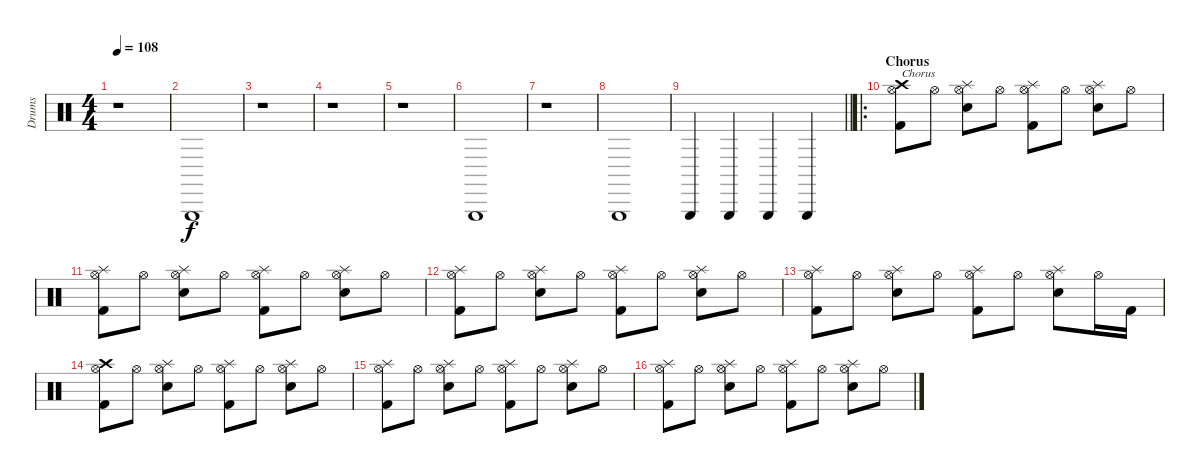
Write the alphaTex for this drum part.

\track ("Drums" "Drums") {instrument percussion}
\staff {score}
\articulation defaults
\ts (4 4)
\tempo 108
\clef neutral
\ks c
r.1{dy f} |
"Triangle (hit)".1 |
r.1 |
r.1 |
r.1 |
"Triangle (hit)".1 |
r.1 |
"Triangle (hit)".1 |
\barLineRight lightlight "Triangle (hit)".4 "Triangle (hit)".4 "Triangle (hit)".4 "Triangle (hit)".4
|
\ro
\section ("" "Chorus")
("Crash high (hit)" "Hi-Hat (open)" "Kick (hit) 2").8{txt "Chorus"} "Hi-Hat (open)".8 ("Splash (hit)" "Hi-Hat (open)" "Snare (hit) 2").8 "Hi-Hat (open)".8 ("Splash (hit)" "Hi-Hat (open)" "Kick (hit) 2").8 "Hi-Hat (open)".8 ("Splash (hit)" "Hi-Hat (open)" "Snare (hit) 2").8 "Hi-Hat (open)".8 |
("Splash (hit)" "Hi-Hat (open)" "Kick (hit) 2").8 "Hi-Hat (open)".8 ("Splash (hit)" "Hi-Hat (open)" "Snare (hit) 2").8 "Hi-Hat (open)".8 ("Splash (hit)" "Hi-Hat (open)" "Kick (hit) 2").8 "Hi-Hat (open)".8 ("Splash (hit)" "Hi-Hat (open)" "Snare (hit) 2").8 "Hi-Hat (open)".8 |
("Splash (hit)" "Hi-Hat (open)" "Kick (hit) 2").8 "Hi-Hat (open)".8 ("Splash (hit)" "Hi-Hat (open)" "Snare (hit) 2").8 "Hi-Hat (open)".8 ("Splash (hit)" "Hi-Hat (open)" "Kick (hit) 2").8 "Hi-Hat (open)".8 ("Splash (hit)" "Hi-Hat (open)" "Snare (hit) 2").8 "Hi-Hat (open)".8 |
("Splash (hit)" "Hi-Hat (open)" "Kick (hit) 2").8 "Hi-Hat (open)".8 ("Splash (hit)" "Hi-Hat (open)" "Snare (hit) 2").8 "Hi-Hat (open)".8 ("Splash (hit)" "Hi-Hat (open)" "Kick (hit) 2").8 "Hi-Hat (open)".8 ("Splash (hit)" "Hi-Hat (open)" "Snare (hit) 2").8 "Hi-Hat (open)".16 "Kick (hit) 2".16 |
("Crash high (hit)" "Hi-Hat (open)" "Kick (hit) 2").8 "Hi-Hat (open)".8 ("Splash (hit)" "Hi-Hat (open)" "Snare (hit) 2").8 "Hi-Hat (open)".8 ("Splash (hit)" "Hi-Hat (open)" "Kick (hit) 2").8 "Hi-Hat (open)".8 ("Splash (hit)" "Hi-Hat (open)" "Snare (hit) 2").8 "Hi-Hat (open)".8 |
("Splash (hit)" "Hi-Hat (open)" "Kick (hit) 2").8 "Hi-Hat (open)".8 ("Splash (hit)" "Hi-Hat (open)" "Snare (hit) 2").8 "Hi-Hat (open)".8 ("Splash (hit)" "Hi-Hat (open)" "Kick (hit) 2").8 "Hi-Hat (open)".8 ("Splash (hit)" "Hi-Hat (open)" "Snare (hit) 2").8 "Hi-Hat (open)".8 |
("Splash (hit)" "Hi-Hat (open)" "Kick (hit) 2").8 "Hi-Hat (open)".8 ("Splash (hit)" "Hi-Hat (open)" "Snare (hit) 2").8 "Hi-Hat (open)".8 ("Splash (hit)" "Hi-Hat (open)" "Kick (hit) 2").8 "Hi-Hat (open)".8 ("Splash (hit)" "Hi-Hat (open)" "Snare (hit) 2").8 "Hi-Hat (open)".8
